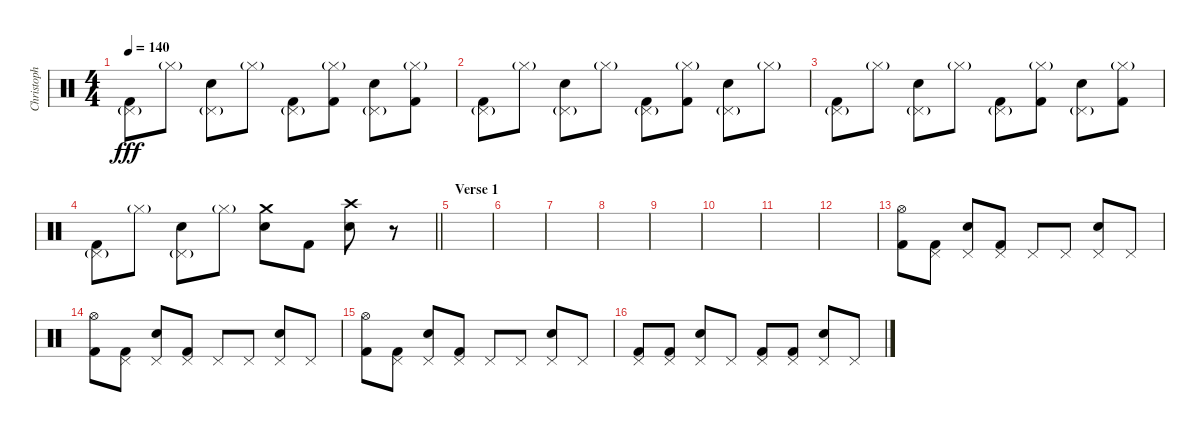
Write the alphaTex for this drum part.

\track ("Christoph" "Christoph") {instrument percussion}
\staff {score}
\articulation defaults
\ts (4 4)
\tempo 140
\clef neutral
\ks c
("Pedal Hi-Hat (hit)"{g} "Kick (hit) 2").8{dy fff} "Hi-Hat (closed)"{g}.8 ("Pedal Hi-Hat (hit)"{g} "Electric Snare (hit)").8 "Hi-Hat (closed)"{g}.8 ("Pedal Hi-Hat (hit)"{g} "Kick (hit) 2").8 ("Hi-Hat (closed)"{g} "Kick (hit) 2").8 ("Pedal Hi-Hat (hit)"{g} "Electric Snare (hit)").8 ("Hi-Hat (closed)"{g} "Kick (hit) 2").8 |
("Pedal Hi-Hat (hit)"{g} "Kick (hit) 2").8 "Hi-Hat (closed)"{g}.8 ("Pedal Hi-Hat (hit)"{g} "Electric Snare (hit)").8 "Hi-Hat (closed)"{g}.8 ("Pedal Hi-Hat (hit)"{g} "Kick (hit) 2").8 ("Hi-Hat (closed)"{g} "Kick (hit) 2").8 ("Pedal Hi-Hat (hit)"{g} "Electric Snare (hit)").8 "Hi-Hat (closed)"{g}.8 |
("Pedal Hi-Hat (hit)"{g} "Kick (hit) 2").8 "Hi-Hat (closed)"{g}.8 ("Pedal Hi-Hat (hit)"{g} "Electric Snare (hit)").8 "Hi-Hat (closed)"{g}.8 ("Pedal Hi-Hat (hit)"{g} "Kick (hit) 2").8 ("Hi-Hat (closed)"{g} "Kick (hit) 2").8 ("Pedal Hi-Hat (hit)"{g} "Electric Snare (hit)").8 ("Hi-Hat (closed)"{g} "Kick (hit) 2").8 |
\barLineRight lightlight
("Pedal Hi-Hat (hit)"{g} "Kick (hit) 2").8 "Hi-Hat (closed)"{g}.8 ("Pedal Hi-Hat (hit)"{g} "Electric Snare (hit)").8 "Hi-Hat (closed)"{g}.8 ("Crash medium (hit)" "Electric Snare (hit)").8 "Kick (hit) 2".8 ("Crash high (hit)" "Electric Snare (hit)").8 r.8 |
\section ("" "Verse 1")
|
|
|
|
|
|
|
|
("Hi-Hat (open)" "Kick (hit) 2").8 ("Pedal Hi-Hat (hit)" "Kick (hit) 2").8 ("Pedal Hi-Hat (hit)" "Electric Snare (hit)").8 ("Pedal Hi-Hat (hit)" "Kick (hit) 2").8 "Pedal Hi-Hat (hit)".8 "Pedal Hi-Hat (hit)".8 ("Pedal Hi-Hat (hit)" "Electric Snare (hit)").8 "Pedal Hi-Hat (hit)".8 |
("Hi-Hat (open)" "Kick (hit) 2").8 ("Pedal Hi-Hat (hit)" "Kick (hit) 2").8 ("Pedal Hi-Hat (hit)" "Electric Snare (hit)").8 ("Pedal Hi-Hat (hit)" "Kick (hit) 2").8 "Pedal Hi-Hat (hit)".8 "Pedal Hi-Hat (hit)".8 ("Pedal Hi-Hat (hit)" "Electric Snare (hit)").8 "Pedal Hi-Hat (hit)".8 |
("Hi-Hat (open)" "Kick (hit) 2").8 ("Pedal Hi-Hat (hit)" "Kick (hit) 2").8 ("Pedal Hi-Hat (hit)" "Electric Snare (hit)").8 ("Pedal Hi-Hat (hit)" "Kick (hit) 2").8 "Pedal Hi-Hat (hit)".8 "Pedal Hi-Hat (hit)".8 ("Pedal Hi-Hat (hit)" "Electric Snare (hit)").8 "Pedal Hi-Hat (hit)".8 |
("Pedal Hi-Hat (hit)" "Kick (hit) 2").8 ("Pedal Hi-Hat (hit)" "Kick (hit) 2").8 ("Pedal Hi-Hat (hit)" "Electric Snare (hit)").8 "Pedal Hi-Hat (hit)".8 ("Pedal Hi-Hat (hit)" "Kick (hit) 2").8 ("Pedal Hi-Hat (hit)" "Kick (hit) 2").8 ("Pedal Hi-Hat (hit)" "Electric Snare (hit)").8 "Pedal Hi-Hat (hit)".8
